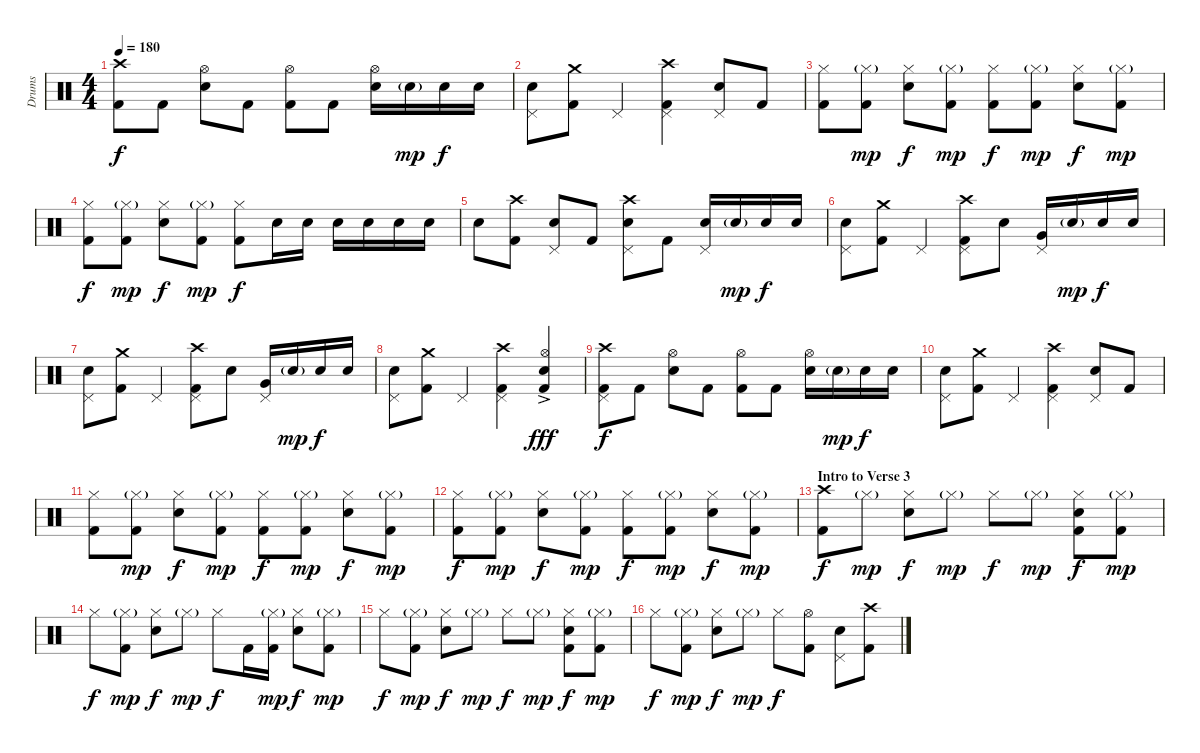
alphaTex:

\track ("Drums" "Drums") {instrument percussion}
\staff {score}
\articulation defaults
\ts (4 4)
\tempo 180
\clef neutral
\ks c
("Crash high (hit)" "Kick (hit) 2").8{dy f} "Kick (hit) 2".8 ("Hi-Hat (open)" "Snare (hit) 2").8 "Kick (hit) 2".8 ("Hi-Hat (open)" "Kick (hit) 2").8 "Kick (hit) 2".8 ("Hi-Hat (open)" "Snare (hit) 2").16 "Snare (hit) 2"{g}.16{dy mp} "Snare (hit) 2".16{dy f} "Snare (hit) 2".16 |
("Pedal Hi-Hat (hit)" "Snare (hit) 2").8 ("Crash medium (hit)" "Kick (hit) 2").8 "Pedal Hi-Hat (hit)".4 ("Crash high (hit)" "Pedal Hi-Hat (hit)" "Kick (hit) 2").4 ("Pedal Hi-Hat (hit)" "Snare (hit) 2").8 "Kick (hit) 2".8 |
("Hi-Hat (closed)" "Kick (hit) 2").8 ("Hi-Hat (closed)"{g} "Kick (hit) 2").8{dy mp} ("Hi-Hat (closed)" "Snare (hit) 2").8{dy f} ("Hi-Hat (closed)"{g} "Kick (hit) 2").8{dy mp} ("Hi-Hat (closed)" "Kick (hit) 2").8{dy f} ("Hi-Hat (closed)"{g} "Kick (hit) 2").8{dy mp} ("Hi-Hat (closed)" "Snare (hit) 2").8{dy f} ("Hi-Hat (closed)"{g} "Kick (hit) 2").8{dy mp} |
("Hi-Hat (closed)" "Kick (hit) 2").8{dy f} ("Hi-Hat (closed)"{g} "Kick (hit) 2").8{dy mp} ("Hi-Hat (closed)" "Snare (hit) 2").8{dy f} ("Hi-Hat (closed)"{g} "Kick (hit) 2").8{dy mp} ("Hi-Hat (closed)" "Kick (hit) 2").8{dy f} "Snare (hit) 2".16 "Snare (hit) 2".16 "Snare (hit) 2".16 "Snare (hit) 2".16 "Snare (hit) 2".16 "Snare (hit) 2".16 |
"Snare (hit) 2".8 ("Crash high (hit)" "Kick (hit) 2").8 ("Pedal Hi-Hat (hit)" "Snare (hit) 2").8 "Kick (hit) 2".8 ("Crash high (hit)" "Pedal Hi-Hat (hit)" "Snare (hit) 2").8 "Kick (hit) 2".8 ("Pedal Hi-Hat (hit)" "Snare (hit) 2").16 "Snare (hit) 2"{g}.16{dy mp} "Snare (hit) 2".16{dy f} "Snare (hit) 2".16 |
("Pedal Hi-Hat (hit)" "Snare (hit) 2").8 ("Crash medium (hit)" "Kick (hit) 2").8 "Pedal Hi-Hat (hit)".4 ("Crash high (hit)" "Pedal Hi-Hat (hit)" "Kick (hit) 2").8 "Snare (hit) 2".8 ("Pedal Hi-Hat (hit)" "Very Low Tom (hit)").16 "Snare (hit) 2"{g}.16{dy mp} "Snare (hit) 2".16{dy f} "Snare (hit) 2".16 |
("Pedal Hi-Hat (hit)" "Snare (hit) 2").8 ("Crash medium (hit)" "Kick (hit) 2").8 "Pedal Hi-Hat (hit)".4 ("Crash high (hit)" "Pedal Hi-Hat (hit)" "Kick (hit) 2").8 "Snare (hit) 2".8 ("Pedal Hi-Hat (hit)" "Very Low Tom (hit)").16 "Snare (hit) 2"{g}.16{dy mp} "Snare (hit) 2".16{dy f} "Snare (hit) 2".16 |
("Pedal Hi-Hat (hit)" "Snare (hit) 2").8 ("Crash medium (hit)" "Kick (hit) 2").8 "Pedal Hi-Hat (hit)".4 ("Crash high (hit)" "Pedal Hi-Hat (hit)" "Kick (hit) 2").4 ("Hi-Hat (open)"{ac} "Snare (hit) 2" "Kick (hit) 2").4{dy fff} |
("Crash high (hit)" "Pedal Hi-Hat (hit)" "Kick (hit) 2").8{dy f} "Kick (hit) 2".8 ("Hi-Hat (open)" "Snare (hit) 2").8 "Kick (hit) 2".8 ("Hi-Hat (open)" "Kick (hit) 2").8 "Kick (hit) 2".8 ("Hi-Hat (open)" "Snare (hit) 2").16 "Snare (hit) 2"{g}.16{dy mp} "Snare (hit) 2".16{dy f} "Snare (hit) 2".16 |
("Pedal Hi-Hat (hit)" "Snare (hit) 2").8 ("Crash medium (hit)" "Kick (hit) 2").8 "Pedal Hi-Hat (hit)".4 ("Crash high (hit)" "Pedal Hi-Hat (hit)" "Kick (hit) 2").4 ("Pedal Hi-Hat (hit)" "Snare (hit) 2").8 "Kick (hit) 2".8 |
("Hi-Hat (closed)" "Kick (hit) 2").8 ("Hi-Hat (closed)"{g} "Kick (hit) 2").8{dy mp} ("Hi-Hat (closed)" "Snare (hit) 2").8{dy f} ("Hi-Hat (closed)"{g} "Kick (hit) 2").8{dy mp} ("Hi-Hat (closed)" "Kick (hit) 2").8{dy f} ("Hi-Hat (closed)"{g} "Kick (hit) 2").8{dy mp} ("Hi-Hat (closed)" "Snare (hit) 2").8{dy f} ("Hi-Hat (closed)"{g} "Kick (hit) 2").8{dy mp} |
("Hi-Hat (closed)" "Kick (hit) 2").8{dy f} ("Hi-Hat (closed)"{g} "Kick (hit) 2").8{dy mp} ("Hi-Hat (closed)" "Snare (hit) 2").8{dy f} ("Hi-Hat (closed)"{g} "Kick (hit) 2").8{dy mp} ("Hi-Hat (closed)" "Kick (hit) 2").8{dy f} ("Hi-Hat (closed)"{g} "Kick (hit) 2").8{dy mp} ("Hi-Hat (closed)" "Snare (hit) 2").8{dy f} ("Hi-Hat (closed)"{g} "Kick (hit) 2").8{dy mp} |
\section ("" "Intro to Verse 3")
("Crash high (hit)" "Kick (hit) 2").8{dy f} "Hi-Hat (closed)"{g}.8{dy mp} ("Hi-Hat (closed)" "Snare (hit) 2").8{dy f} "Hi-Hat (closed)"{g}.8{dy mp} "Hi-Hat (closed)".8{dy f} "Hi-Hat (closed)"{g}.8{dy mp} ("Hi-Hat (closed)" "Snare (hit) 2" "Kick (hit) 2").8{dy f} ("Hi-Hat (closed)"{g} "Kick (hit) 2").8{dy mp} |
"Hi-Hat (closed)".8{dy f} ("Hi-Hat (closed)"{g} "Kick (hit) 2").8{dy mp} ("Hi-Hat (closed)" "Snare (hit) 2").8{dy f} "Hi-Hat (closed)"{g}.8{dy mp} "Hi-Hat (closed)".8{dy f} "Kick (hit) 2".16 ("Hi-Hat (closed)"{g} "Kick (hit) 2").16{dy mp} ("Hi-Hat (closed)" "Snare (hit) 2").8{dy f} ("Hi-Hat (closed)"{g} "Kick (hit) 2").8{dy mp} |
"Hi-Hat (closed)".8{dy f} ("Hi-Hat (closed)"{g} "Kick (hit) 2").8{dy mp} ("Hi-Hat (closed)" "Snare (hit) 2").8{dy f} "Hi-Hat (closed)"{g}.8{dy mp} "Hi-Hat (closed)".8{dy f} "Hi-Hat (closed)"{g}.8{dy mp} ("Hi-Hat (closed)" "Snare (hit) 2" "Kick (hit) 2").8{dy f} ("Hi-Hat (closed)"{g} "Kick (hit) 2").8{dy mp} |
"Hi-Hat (closed)".8{dy f} ("Hi-Hat (closed)"{g} "Kick (hit) 2").8{dy mp} ("Hi-Hat (closed)" "Snare (hit) 2").8{dy f} "Hi-Hat (closed)"{g}.8{dy mp} "Hi-Hat (closed)".8{dy f} ("Hi-Hat (open)" "Kick (hit) 2").8 ("Pedal Hi-Hat (hit)" "Snare (hit) 2").8 ("Crash high (hit)" "Kick (hit) 2").8
